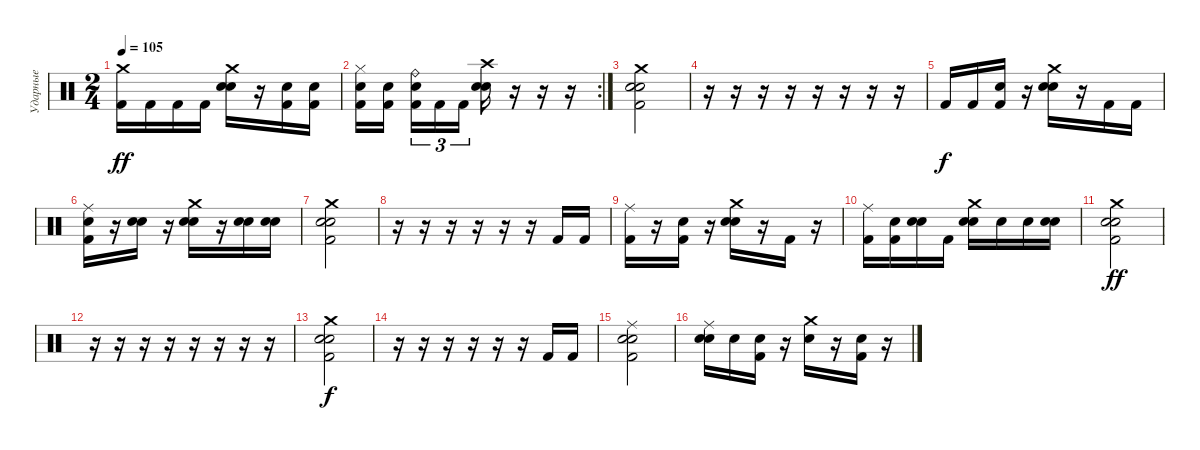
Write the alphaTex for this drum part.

\track ("Ударные" "Ударные") {instrument percussion}
\staff {score}
\articulation defaults
\ts (2 4)
\tempo 105
\clef neutral
\ks c
("Crash medium (hit)" "Kick (hit) 2").16{dy ff} "Kick (hit) 2".16 "Kick (hit) 2".16 "Kick (hit) 2".16 ("Crash medium (hit)" "Snare (hit) 2" "Electric Snare (hit)").16 r.16 ("Kick (hit) 2" "Electric Snare (hit)").16 ("Kick (hit) 2" "Electric Snare (hit)").16 |
\rc 2
("Hi-Hat (closed)" "Kick (hit) 2" "Electric Snare (hit)").16 ("Kick (hit) 2" "Electric Snare (hit)").16 ("Ride (bell)" "Kick (hit) 2" "Electric Snare (hit)").16{tu (3 2)} "Kick (hit) 2".16{tu (3 2)} "Kick (hit) 2".16{tu (3 2)} ("Crash high (hit)" "Snare (hit) 2" "Electric Snare (hit)").16 r.16 r.16 r.16 |
("Crash medium (hit)" "Snare (hit) 2" "Kick (hit) 2" "Electric Snare (hit)").2 |
r.16 r.16 r.16 r.16 r.16 r.16 r.16 r.16 |
"Kick (hit) 2".16{dy f} "Kick (hit) 2".16 ("Kick (hit) 2" "Electric Snare (hit)").16 r.16 ("Crash medium (hit)" "Snare (hit) 2" "Electric Snare (hit)").16 r.16 "Kick (hit) 2".16 "Kick (hit) 2".16 |
("Ride (middle)" "Kick (hit) 2" "Electric Snare (hit)").16 r.16 ("Snare (hit) 2" "Electric Snare (hit)").16 r.16 ("Crash medium (hit)" "Snare (hit) 2" "Electric Snare (hit)").16 r.16 ("Snare (hit) 2" "Electric Snare (hit)").16 ("Snare (hit) 2" "Electric Snare (hit)").16 |
("Crash medium (hit)" "Snare (hit) 2" "Kick (hit) 2" "Electric Snare (hit)").2 |
r.16 r.16 r.16 r.16 r.16 r.16 "Kick (hit) 2".16 "Kick (hit) 2".16 |
("Ride (middle)" "Kick (hit) 2").16 r.16 ("Kick (hit) 2" "Electric Snare (hit)").16 r.16 ("Crash medium (hit)" "Snare (hit) 2" "Electric Snare (hit)").16 r.16 "Kick (hit) 2".16 r.16 |
("Ride (middle)" "Kick (hit) 2").16 ("Kick (hit) 2" "Electric Snare (hit)").16 ("Snare (hit) 2" "Electric Snare (hit)").16 "Kick (hit) 2".16 ("Crash medium (hit)" "Snare (hit) 2" "Electric Snare (hit)").16 "Electric Snare (hit)".16 "Snare (hit) 2".16 ("Snare (hit) 2" "Electric Snare (hit)").16 |
("Crash medium (hit)" "Snare (hit) 2" "Kick (hit) 2" "Electric Snare (hit)").2{dy ff} |
r.16 r.16 r.16 r.16 r.16 r.16 r.16 r.16 |
("Crash medium (hit)" "Snare (hit) 2" "Kick (hit) 2" "Electric Snare (hit)").2{dy f} |
r.16 r.16 r.16 r.16 r.16 r.16 "Kick (hit) 2".16 "Kick (hit) 2".16 |
("Ride (middle)" "Kick (hit) 2" "Snare (hit) 2" "Electric Snare (hit)").2 |
("Ride (middle)" "Snare (hit) 2" "Electric Snare (hit)").16 "Electric Snare (hit)".16 ("Kick (hit) 2" "Electric Snare (hit)").16 r.16 ("Crash medium (hit)" "Snare (hit) 2").16 r.16 ("Kick (hit) 2" "Electric Snare (hit)").16 r.16
